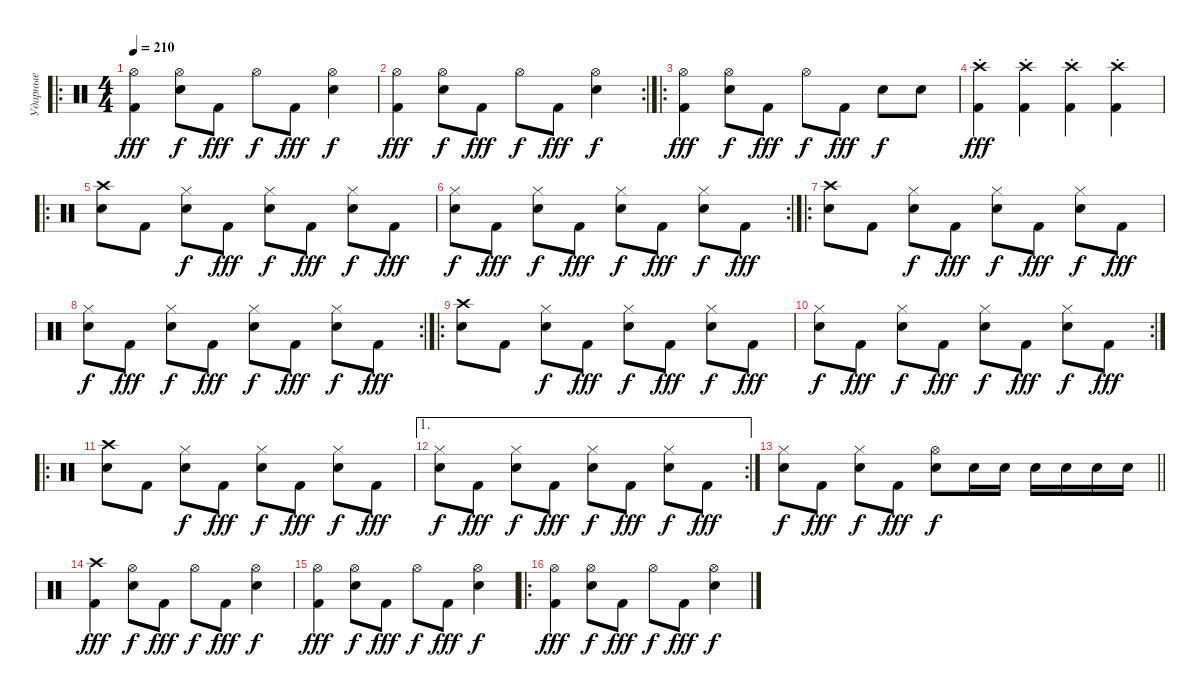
\track ("Ударные" "Ударные") {instrument percussion}
\staff {score}
\articulation defaults
\ro
\ts (4 4)
\tempo 210
\clef neutral
\ks c
("Kick (hit) 2" "Hi-Hat (open)").4{dy fff} ("Snare (hit) 2" "Hi-Hat (open)").8{dy f} "Kick (hit) 2".8{dy fff} "Hi-Hat (open)".8{dy f} "Kick (hit) 2".8{dy fff} ("Snare (hit) 2" "Hi-Hat (open)").4{dy f} |
\rc 2
("Kick (hit) 2" "Hi-Hat (open)").4{dy fff} ("Snare (hit) 2" "Hi-Hat (open)").8{dy f} "Kick (hit) 2".8{dy fff} "Hi-Hat (open)".8{dy f} "Kick (hit) 2".8{dy fff} ("Snare (hit) 2" "Hi-Hat (open)").4{dy f} |
\ro
("Kick (hit) 2" "Hi-Hat (open)").4{dy fff} ("Snare (hit) 2" "Hi-Hat (open)").8{dy f} "Kick (hit) 2".8{dy fff} "Hi-Hat (open)".8{dy f} "Kick (hit) 2".8{dy fff} "Snare (hit) 2".8{dy f} "Snare (hit) 2".8 |
("Kick (hit) 2"{st} "Crash high (hit)"{st}).4{dy fff} ("Kick (hit) 2"{st} "Crash high (hit)"{st}).4 ("Kick (hit) 2"{st} "Crash high (hit)"{st}).4 ("Kick (hit) 2"{st} "Crash high (hit)"{st}).4 |
\ro
("Snare (hit) 2" "Crash high (hit)").8 "Kick (hit) 2".8 ("Snare (hit) 2" "Hi-Hat (closed)").8{dy f} "Kick (hit) 2".8{dy fff} ("Snare (hit) 2" "Hi-Hat (closed)").8{dy f} "Kick (hit) 2".8{dy fff} ("Snare (hit) 2" "Hi-Hat (closed)").8{dy f} "Kick (hit) 2".8{dy fff} |
\rc 2
("Snare (hit) 2" "Hi-Hat (closed)").8{dy f} "Kick (hit) 2".8{dy fff} ("Snare (hit) 2" "Hi-Hat (closed)").8{dy f} "Kick (hit) 2".8{dy fff} ("Snare (hit) 2" "Hi-Hat (closed)").8{dy f} "Kick (hit) 2".8{dy fff} ("Snare (hit) 2" "Hi-Hat (closed)").8{dy f} "Kick (hit) 2".8{dy fff} |
\ro
("Snare (hit) 2" "Crash high (hit)").8 "Kick (hit) 2".8 ("Snare (hit) 2" "Hi-Hat (closed)").8{dy f} "Kick (hit) 2".8{dy fff} ("Snare (hit) 2" "Hi-Hat (closed)").8{dy f} "Kick (hit) 2".8{dy fff} ("Snare (hit) 2" "Hi-Hat (closed)").8{dy f} "Kick (hit) 2".8{dy fff} |
\rc 2
("Snare (hit) 2" "Hi-Hat (closed)").8{dy f} "Kick (hit) 2".8{dy fff} ("Snare (hit) 2" "Hi-Hat (closed)").8{dy f} "Kick (hit) 2".8{dy fff} ("Snare (hit) 2" "Hi-Hat (closed)").8{dy f} "Kick (hit) 2".8{dy fff} ("Snare (hit) 2" "Hi-Hat (closed)").8{dy f} "Kick (hit) 2".8{dy fff} |
\ro
("Snare (hit) 2" "Crash high (hit)").8 "Kick (hit) 2".8 ("Snare (hit) 2" "Hi-Hat (closed)").8{dy f} "Kick (hit) 2".8{dy fff} ("Snare (hit) 2" "Hi-Hat (closed)").8{dy f} "Kick (hit) 2".8{dy fff} ("Snare (hit) 2" "Hi-Hat (closed)").8{dy f} "Kick (hit) 2".8{dy fff} |
\rc 2
("Snare (hit) 2" "Hi-Hat (closed)").8{dy f} "Kick (hit) 2".8{dy fff} ("Snare (hit) 2" "Hi-Hat (closed)").8{dy f} "Kick (hit) 2".8{dy fff} ("Snare (hit) 2" "Hi-Hat (closed)").8{dy f} "Kick (hit) 2".8{dy fff} ("Snare (hit) 2" "Hi-Hat (closed)").8{dy f} "Kick (hit) 2".8{dy fff} |
\ro
("Snare (hit) 2" "Crash high (hit)").8 "Kick (hit) 2".8 ("Snare (hit) 2" "Hi-Hat (closed)").8{dy f} "Kick (hit) 2".8{dy fff} ("Snare (hit) 2" "Hi-Hat (closed)").8{dy f} "Kick (hit) 2".8{dy fff} ("Snare (hit) 2" "Hi-Hat (closed)").8{dy f} "Kick (hit) 2".8{dy fff} |
\ae 1
\rc 2
("Snare (hit) 2" "Hi-Hat (closed)").8{dy f} "Kick (hit) 2".8{dy fff} ("Snare (hit) 2" "Hi-Hat (closed)").8{dy f} "Kick (hit) 2".8{dy fff} ("Snare (hit) 2" "Hi-Hat (closed)").8{dy f} "Kick (hit) 2".8{dy fff} ("Snare (hit) 2" "Hi-Hat (closed)").8{dy f} "Kick (hit) 2".8{dy fff} |
\barLineRight lightlight
("Snare (hit) 2" "Hi-Hat (closed)").8{dy f} "Kick (hit) 2".8{dy fff} ("Snare (hit) 2" "Hi-Hat (closed)").8{dy f} "Kick (hit) 2".8{dy fff} ("Snare (hit) 2" "Hi-Hat (open)").8{dy f} "Snare (hit) 2".16 "Snare (hit) 2".16 "Snare (hit) 2".16 "Snare (hit) 2".16 "Snare (hit) 2".16 "Snare (hit) 2".16 |
("Kick (hit) 2" "Crash high (hit)").4{dy fff} ("Snare (hit) 2" "Hi-Hat (open)").8{dy f} "Kick (hit) 2".8{dy fff} "Hi-Hat (open)".8{dy f} "Kick (hit) 2".8{dy fff} ("Snare (hit) 2" "Hi-Hat (open)").4{dy f} |
("Kick (hit) 2" "Hi-Hat (open)").4{dy fff} ("Snare (hit) 2" "Hi-Hat (open)").8{dy f} "Kick (hit) 2".8{dy fff} "Hi-Hat (open)".8{dy f} "Kick (hit) 2".8{dy fff} ("Snare (hit) 2" "Hi-Hat (open)").4{dy f} |
\ro
("Kick (hit) 2" "Hi-Hat (open)").4{dy fff} ("Snare (hit) 2" "Hi-Hat (open)").8{dy f} "Kick (hit) 2".8{dy fff} "Hi-Hat (open)".8{dy f} "Kick (hit) 2".8{dy fff} ("Snare (hit) 2" "Hi-Hat (open)").4{dy f}
